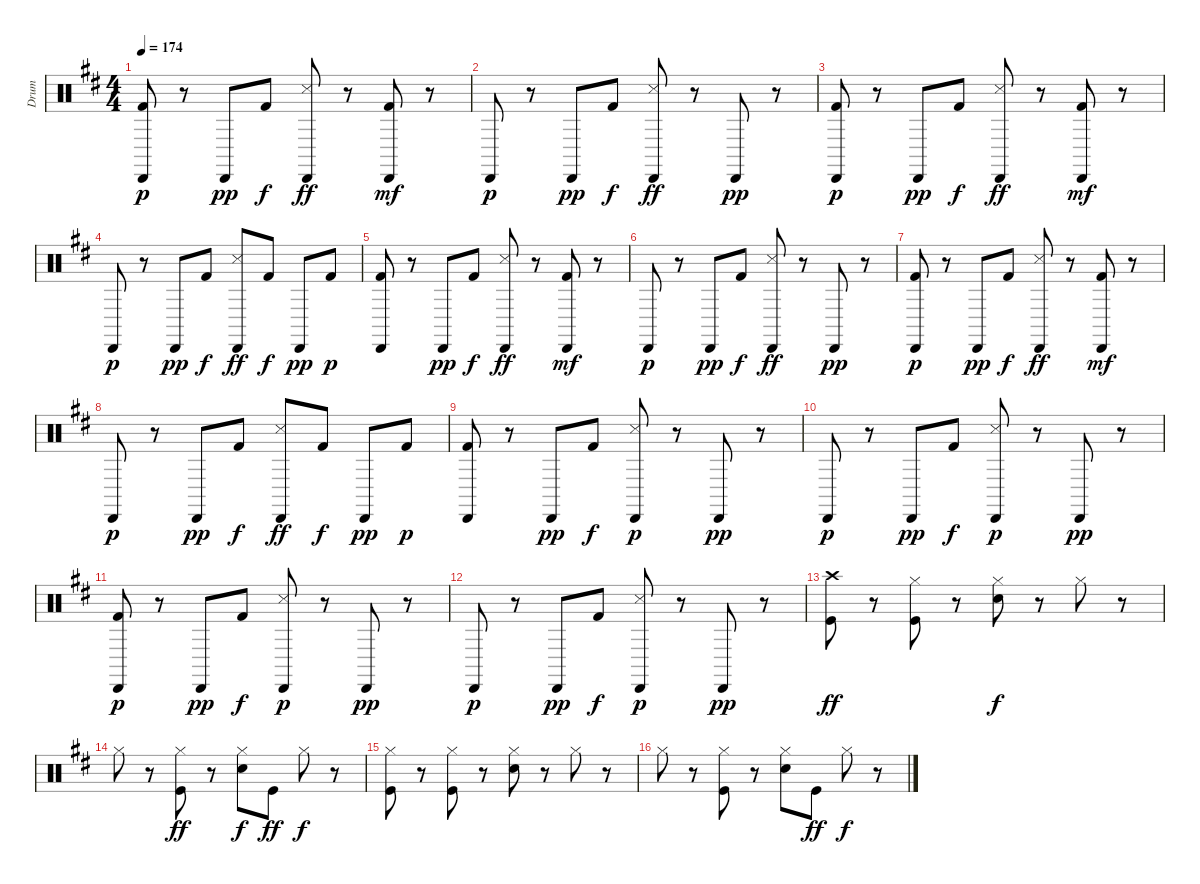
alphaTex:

\track ("Drum" "Drum") {instrument percussion}
\staff {score}
\articulation defaults
\ts (4 4)
\tempo 174
\clef neutral
\ks d
("Cabasa (hit)" "Kick (hit) 2").8{dy p} r.8 "Cabasa (hit)".8{dy pp} "Kick (hit) 2".8{dy f} ("Cabasa (hit)" "Snare (side stick) 3").8{dy ff} r.8 ("Cabasa (hit)" "Kick (hit) 2").8{dy mf} r.8 |
"Cabasa (hit)".8{dy p} r.8 "Cabasa (hit)".8{dy pp} "Kick (hit) 2".8{dy f} ("Cabasa (hit)" "Snare (side stick) 3").8{dy ff} r.8 "Cabasa (hit)".8{dy pp} r.8 |
("Cabasa (hit)" "Kick (hit) 2").8{dy p} r.8 "Cabasa (hit)".8{dy pp} "Kick (hit) 2".8{dy f} ("Cabasa (hit)" "Snare (side stick) 3").8{dy ff} r.8 ("Cabasa (hit)" "Kick (hit) 2").8{dy mf} r.8 |
"Cabasa (hit)".8{dy p} r.8 "Cabasa (hit)".8{dy pp} "Kick (hit) 2".8{dy f} ("Cabasa (hit)" "Snare (side stick) 3").8{dy ff} "Kick (hit) 2".8{dy f} "Cabasa (hit)".8{dy pp} "Kick (hit) 2".8{dy p} |
("Cabasa (hit)" "Kick (hit) 2").8 r.8 "Cabasa (hit)".8{dy pp} "Kick (hit) 2".8{dy f} ("Cabasa (hit)" "Snare (side stick) 3").8{dy ff} r.8 ("Cabasa (hit)" "Kick (hit) 2").8{dy mf} r.8 |
"Cabasa (hit)".8{dy p} r.8 "Cabasa (hit)".8{dy pp} "Kick (hit) 2".8{dy f} ("Cabasa (hit)" "Snare (side stick) 3").8{dy ff} r.8 "Cabasa (hit)".8{dy pp} r.8 |
("Cabasa (hit)" "Kick (hit) 2").8{dy p} r.8 "Cabasa (hit)".8{dy pp} "Kick (hit) 2".8{dy f} ("Cabasa (hit)" "Snare (side stick) 3").8{dy ff} r.8 ("Cabasa (hit)" "Kick (hit) 2").8{dy mf} r.8 |
"Cabasa (hit)".8{dy p} r.8 "Cabasa (hit)".8{dy pp} "Kick (hit) 2".8{dy f} ("Cabasa (hit)" "Snare (side stick) 3").8{dy ff} "Kick (hit) 2".8{dy f} "Cabasa (hit)".8{dy pp} "Kick (hit) 2".8{dy p} |
("Cabasa (hit)" "Kick (hit) 2").8 r.8 "Cabasa (hit)".8{dy pp} "Kick (hit) 2".8{dy f} ("Cabasa (hit)" "Snare (side stick) 3").8{dy p} r.8 "Cabasa (hit)".8{dy pp} r.8 |
"Cabasa (hit)".8{dy p} r.8 "Cabasa (hit)".8{dy pp} "Kick (hit) 2".8{dy f} ("Cabasa (hit)" "Snare (side stick) 3").8{dy p} r.8 "Cabasa (hit)".8{dy pp} r.8 |
("Cabasa (hit)" "Kick (hit) 2").8{dy p} r.8 "Cabasa (hit)".8{dy pp} "Kick (hit) 2".8{dy f} ("Cabasa (hit)" "Snare (side stick) 3").8{dy p} r.8 "Cabasa (hit)".8{dy pp} r.8 |
"Cabasa (hit)".8{dy p} r.8 "Cabasa (hit)".8{dy pp} "Kick (hit) 2".8{dy f} ("Cabasa (hit)" "Snare (side stick) 3").8{dy p} r.8 "Cabasa (hit)".8{dy pp} r.8 |
("Crash high (hit)" "Kick (hit)").8{dy ff} r.8 ("Hi-Hat (closed)" "Kick (hit)").8 r.8 ("Hi-Hat (closed)" "Snare (hit) 2").8{dy f} r.8 "Hi-Hat (closed)".8 r.8 |
"Hi-Hat (closed)".8 r.8 ("Hi-Hat (closed)" "Kick (hit)").8{dy ff} r.8 ("Hi-Hat (closed)" "Snare (hit) 2").8{dy f} "Kick (hit)".8{dy ff} "Hi-Hat (closed)".8{dy f} r.8 |
("Hi-Hat (closed)" "Kick (hit)").8 r.8 ("Hi-Hat (closed)" "Kick (hit)").8 r.8 ("Hi-Hat (closed)" "Snare (hit) 2").8 r.8 "Hi-Hat (closed)".8 r.8 |
"Hi-Hat (closed)".8 r.8 ("Hi-Hat (closed)" "Kick (hit)").8 r.8 ("Hi-Hat (closed)" "Snare (hit) 2").8 "Kick (hit)".8{dy ff} "Hi-Hat (closed)".8{dy f} r.8
